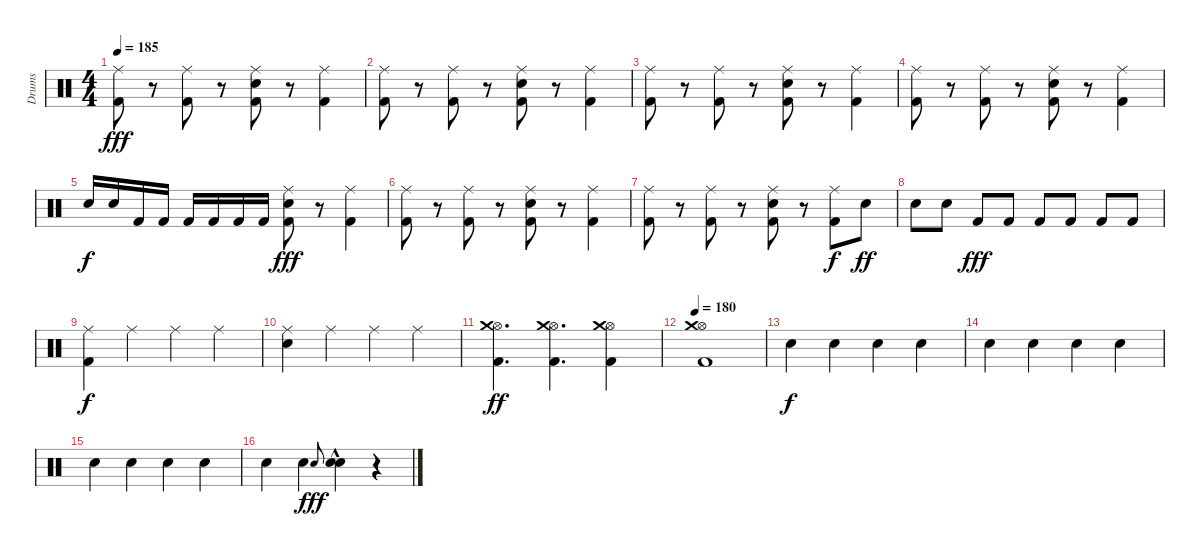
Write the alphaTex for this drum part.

\track ("Drums" "Drums") {instrument percussion}
\staff {score}
\articulation defaults
\ts (4 4)
\tempo 185
\clef neutral
\ks c
("Ride (middle)" "Kick (hit) 2").8{dy fff} r.8 ("Ride (middle)" "Kick (hit) 2").8 r.8 ("Ride (middle)" "Snare (hit) 2" "Kick (hit) 2").8 r.8 ("Ride (middle)" "Kick (hit) 2").4 |
("Ride (middle)" "Kick (hit) 2").8 r.8 ("Ride (middle)" "Kick (hit) 2").8 r.8 ("Ride (middle)" "Snare (hit) 2" "Kick (hit) 2").8 r.8 ("Ride (middle)" "Kick (hit) 2").4 |
("Ride (middle)" "Kick (hit) 2").8 r.8 ("Ride (middle)" "Kick (hit) 2").8 r.8 ("Ride (middle)" "Snare (hit) 2" "Kick (hit) 2").8 r.8 ("Ride (middle)" "Kick (hit) 2").4 |
("Ride (middle)" "Kick (hit) 2").8 r.8 ("Ride (middle)" "Kick (hit) 2").8 r.8 ("Ride (middle)" "Snare (hit) 2" "Kick (hit) 2").8 r.8 ("Ride (middle)" "Kick (hit) 2").4 |
"Snare (hit) 2".16{dy f} "Snare (hit) 2".16 "Kick (hit) 2".16 "Kick (hit) 2".16 "Kick (hit) 2".16 "Kick (hit) 2".16 "Kick (hit) 2".16 "Kick (hit) 2".16 ("Ride (middle)" "Snare (hit) 2" "Kick (hit) 2").8{dy fff} r.8 ("Ride (middle)" "Kick (hit) 2").4 |
("Ride (middle)" "Kick (hit) 2").8 r.8 ("Ride (middle)" "Kick (hit) 2").8 r.8 ("Ride (middle)" "Snare (hit) 2" "Kick (hit) 2").8 r.8 ("Ride (middle)" "Kick (hit) 2").4 |
("Ride (middle)" "Kick (hit) 2").8 r.8 ("Ride (middle)" "Kick (hit) 2").8 r.8 ("Ride (middle)" "Snare (hit) 2" "Kick (hit) 2").8 r.8 ("Ride (middle)" "Kick (hit) 2").8{dy f} "Snare (hit) 2".8{dy ff} |
"Snare (hit) 2".8 "Snare (hit) 2".8 "Kick (hit) 2".8{dy fff} "Kick (hit) 2".8 "Kick (hit) 2".8 "Kick (hit) 2".8 "Kick (hit) 2".8 "Kick (hit) 2".8 |
("Ride (middle)" "Kick (hit) 2").4{dy f} "Ride (middle)".4 "Ride (middle)".4 "Ride (middle)".4 |
("Ride (middle)" "Snare (hit) 2").4 "Ride (middle)".4 "Ride (middle)".4 "Ride (middle)".4 |
("Hi-Hat (open)" "Crash medium (hit)" "Kick (hit) 2").4{d dy ff} ("Hi-Hat (open)" "Crash medium (hit)" "Kick (hit) 2").4{d} ("Hi-Hat (open)" "Crash medium (hit)" "Kick (hit) 2").4 |
\tempo 180
("Hi-Hat (open)" "Crash medium (hit)" "Kick (hit) 2").1 |
"Snare (hit) 2".4{dy f} "Snare (hit) 2".4 "Snare (hit) 2".4 "Snare (hit) 2".4 |
"Snare (hit) 2".4 "Snare (hit) 2".4 "Snare (hit) 2".4 "Snare (hit) 2".4 |
"Snare (hit) 2".4 "Snare (hit) 2".4 "Snare (hit) 2".4 "Snare (hit) 2".4 |
"Snare (hit) 2".4 "Snare (hit) 2".4 "Snare (hit) 2".8{gr onbeat dy fff} ("Electric Snare (hit)" "Snare (hit) 2"{hac}).4 r.4
